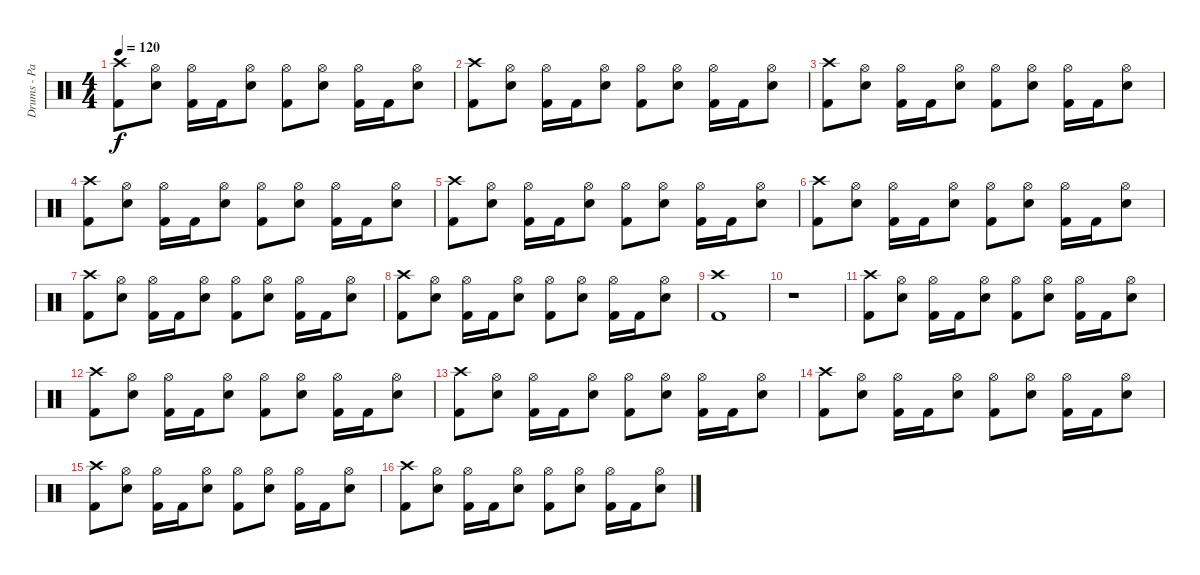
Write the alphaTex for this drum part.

\track ("Drums - Pat Thetic" "Drums - Pa") {instrument percussion}
\staff {score}
\articulation defaults
\ts (4 4)
\tempo 120
\clef neutral
\ks c
("Crash high (hit)" "Kick (hit) 2").8{dy f} ("Hi-Hat (open)" "Electric Snare (hit)").8 ("Hi-Hat (open)" "Kick (hit) 2").16 "Kick (hit) 2".16 ("Hi-Hat (open)" "Electric Snare (hit)").8 ("Hi-Hat (open)" "Kick (hit) 2").8 ("Hi-Hat (open)" "Electric Snare (hit)").8 ("Hi-Hat (open)" "Kick (hit) 2").16 "Kick (hit) 2".16 ("Hi-Hat (open)" "Electric Snare (hit)").8 |
("Crash high (hit)" "Kick (hit) 2").8 ("Hi-Hat (open)" "Electric Snare (hit)").8 ("Hi-Hat (open)" "Kick (hit) 2").16 "Kick (hit) 2".16 ("Hi-Hat (open)" "Electric Snare (hit)").8 ("Hi-Hat (open)" "Kick (hit) 2").8 ("Hi-Hat (open)" "Electric Snare (hit)").8 ("Hi-Hat (open)" "Kick (hit) 2").16 "Kick (hit) 2".16 ("Hi-Hat (open)" "Electric Snare (hit)").8 |
("Crash high (hit)" "Kick (hit) 2").8 ("Hi-Hat (open)" "Electric Snare (hit)").8 ("Hi-Hat (open)" "Kick (hit) 2").16 "Kick (hit) 2".16 ("Hi-Hat (open)" "Electric Snare (hit)").8 ("Hi-Hat (open)" "Kick (hit) 2").8 ("Hi-Hat (open)" "Electric Snare (hit)").8 ("Hi-Hat (open)" "Kick (hit) 2").16 "Kick (hit) 2".16 ("Hi-Hat (open)" "Electric Snare (hit)").8 |
("Crash high (hit)" "Kick (hit) 2").8 ("Hi-Hat (open)" "Electric Snare (hit)").8 ("Hi-Hat (open)" "Kick (hit) 2").16 "Kick (hit) 2".16 ("Hi-Hat (open)" "Electric Snare (hit)").8 ("Hi-Hat (open)" "Kick (hit) 2").8 ("Hi-Hat (open)" "Electric Snare (hit)").8 ("Hi-Hat (open)" "Kick (hit) 2").16 "Kick (hit) 2".16 ("Hi-Hat (open)" "Electric Snare (hit)").8 |
("Crash high (hit)" "Kick (hit) 2").8 ("Hi-Hat (open)" "Electric Snare (hit)").8 ("Hi-Hat (open)" "Kick (hit) 2").16 "Kick (hit) 2".16 ("Hi-Hat (open)" "Electric Snare (hit)").8 ("Hi-Hat (open)" "Kick (hit) 2").8 ("Hi-Hat (open)" "Electric Snare (hit)").8 ("Hi-Hat (open)" "Kick (hit) 2").16 "Kick (hit) 2".16 ("Hi-Hat (open)" "Electric Snare (hit)").8 |
("Crash high (hit)" "Kick (hit) 2").8 ("Hi-Hat (open)" "Electric Snare (hit)").8 ("Hi-Hat (open)" "Kick (hit) 2").16 "Kick (hit) 2".16 ("Hi-Hat (open)" "Electric Snare (hit)").8 ("Hi-Hat (open)" "Kick (hit) 2").8 ("Hi-Hat (open)" "Electric Snare (hit)").8 ("Hi-Hat (open)" "Kick (hit) 2").16 "Kick (hit) 2".16 ("Hi-Hat (open)" "Electric Snare (hit)").8 |
("Crash high (hit)" "Kick (hit) 2").8 ("Hi-Hat (open)" "Electric Snare (hit)").8 ("Hi-Hat (open)" "Kick (hit) 2").16 "Kick (hit) 2".16 ("Hi-Hat (open)" "Electric Snare (hit)").8 ("Hi-Hat (open)" "Kick (hit) 2").8 ("Hi-Hat (open)" "Electric Snare (hit)").8 ("Hi-Hat (open)" "Kick (hit) 2").16 "Kick (hit) 2".16 ("Hi-Hat (open)" "Electric Snare (hit)").8 |
("Crash high (hit)" "Kick (hit) 2").8 ("Hi-Hat (open)" "Electric Snare (hit)").8 ("Hi-Hat (open)" "Kick (hit) 2").16 "Kick (hit) 2".16 ("Hi-Hat (open)" "Electric Snare (hit)").8 ("Hi-Hat (open)" "Kick (hit) 2").8 ("Hi-Hat (open)" "Electric Snare (hit)").8 ("Hi-Hat (open)" "Kick (hit) 2").16 "Kick (hit) 2".16 ("Hi-Hat (open)" "Electric Snare (hit)").8 |
("Crash high (hit)" "Kick (hit) 2").1 |
r.1 |
("Crash high (hit)" "Kick (hit) 2").8 ("Hi-Hat (open)" "Electric Snare (hit)").8 ("Hi-Hat (open)" "Kick (hit) 2").16 "Kick (hit) 2".16 ("Hi-Hat (open)" "Electric Snare (hit)").8 ("Hi-Hat (open)" "Kick (hit) 2").8 ("Hi-Hat (open)" "Electric Snare (hit)").8 ("Hi-Hat (open)" "Kick (hit) 2").16 "Kick (hit) 2".16 ("Hi-Hat (open)" "Electric Snare (hit)").8 |
("Crash high (hit)" "Kick (hit) 2").8 ("Hi-Hat (open)" "Electric Snare (hit)").8 ("Hi-Hat (open)" "Kick (hit) 2").16 "Kick (hit) 2".16 ("Hi-Hat (open)" "Electric Snare (hit)").8 ("Hi-Hat (open)" "Kick (hit) 2").8 ("Hi-Hat (open)" "Electric Snare (hit)").8 ("Hi-Hat (open)" "Kick (hit) 2").16 "Kick (hit) 2".16 ("Hi-Hat (open)" "Electric Snare (hit)").8 |
("Crash high (hit)" "Kick (hit) 2").8 ("Hi-Hat (open)" "Electric Snare (hit)").8 ("Hi-Hat (open)" "Kick (hit) 2").16 "Kick (hit) 2".16 ("Hi-Hat (open)" "Electric Snare (hit)").8 ("Hi-Hat (open)" "Kick (hit) 2").8 ("Hi-Hat (open)" "Electric Snare (hit)").8 ("Hi-Hat (open)" "Kick (hit) 2").16 "Kick (hit) 2".16 ("Hi-Hat (open)" "Electric Snare (hit)").8 |
("Crash high (hit)" "Kick (hit) 2").8 ("Hi-Hat (open)" "Electric Snare (hit)").8 ("Hi-Hat (open)" "Kick (hit) 2").16 "Kick (hit) 2".16 ("Hi-Hat (open)" "Electric Snare (hit)").8 ("Hi-Hat (open)" "Kick (hit) 2").8 ("Hi-Hat (open)" "Electric Snare (hit)").8 ("Hi-Hat (open)" "Kick (hit) 2").16 "Kick (hit) 2".16 ("Hi-Hat (open)" "Electric Snare (hit)").8 |
("Crash high (hit)" "Kick (hit) 2").8 ("Hi-Hat (open)" "Electric Snare (hit)").8 ("Hi-Hat (open)" "Kick (hit) 2").16 "Kick (hit) 2".16 ("Hi-Hat (open)" "Electric Snare (hit)").8 ("Hi-Hat (open)" "Kick (hit) 2").8 ("Hi-Hat (open)" "Electric Snare (hit)").8 ("Hi-Hat (open)" "Kick (hit) 2").16 "Kick (hit) 2".16 ("Hi-Hat (open)" "Electric Snare (hit)").8 |
("Crash high (hit)" "Kick (hit) 2").8 ("Hi-Hat (open)" "Electric Snare (hit)").8 ("Hi-Hat (open)" "Kick (hit) 2").16 "Kick (hit) 2".16 ("Hi-Hat (open)" "Electric Snare (hit)").8 ("Hi-Hat (open)" "Kick (hit) 2").8 ("Hi-Hat (open)" "Electric Snare (hit)").8 ("Hi-Hat (open)" "Kick (hit) 2").16 "Kick (hit) 2".16 ("Hi-Hat (open)" "Electric Snare (hit)").8
